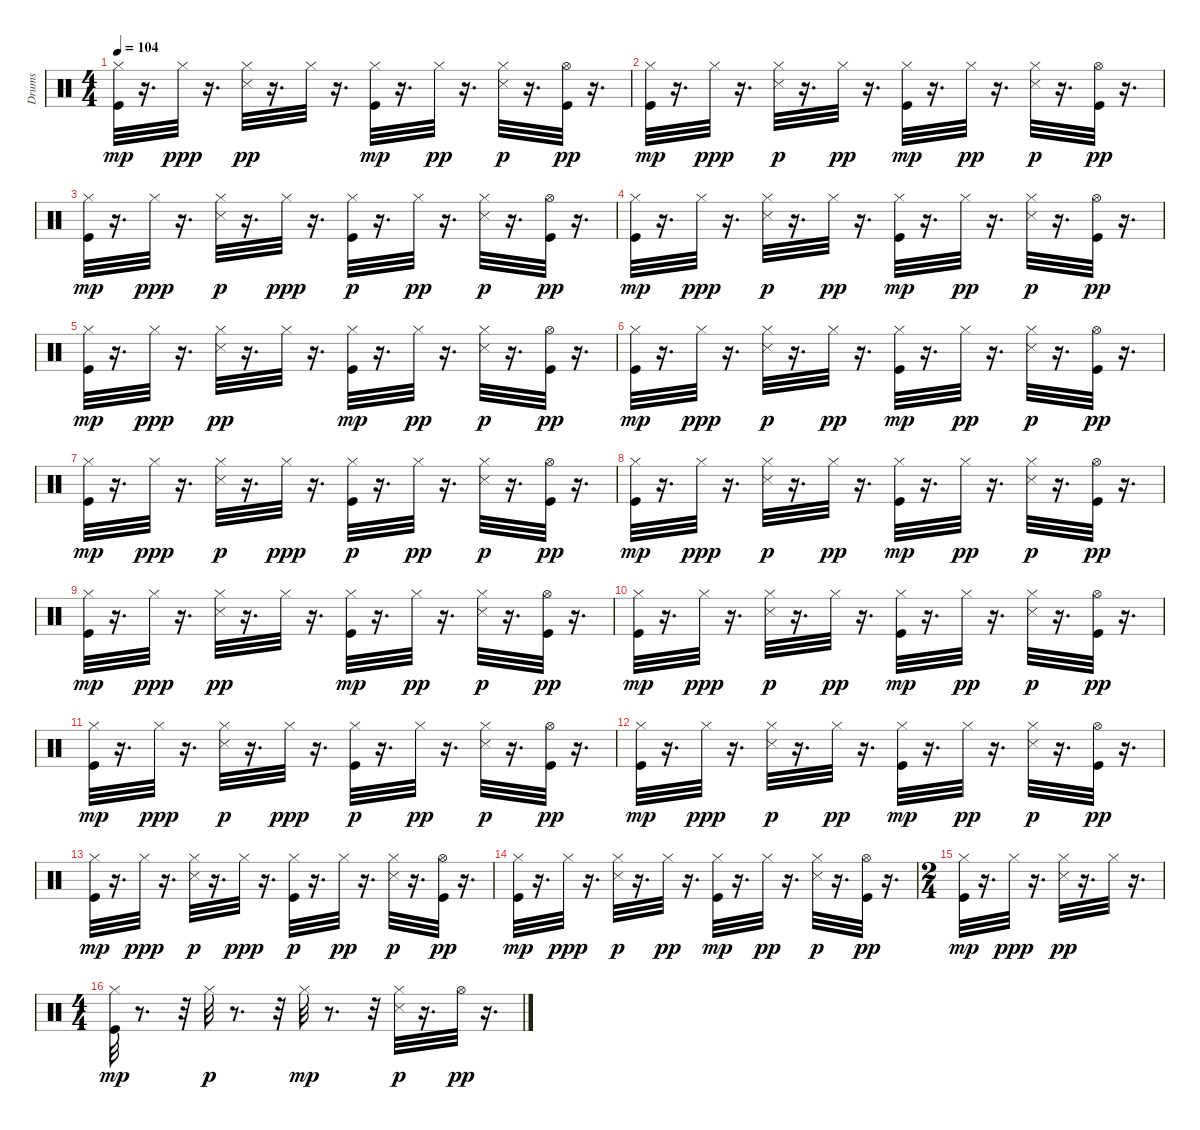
\track ("Drums" "Drums") {instrument percussion}
\staff {score}
\articulation defaults
\ts (4 4)
\tempo 104
\clef neutral
\ks c
("Kick (hit)" "Hi-Hat (closed)").32{dy mp} r.16{d} "Hi-Hat (closed)".32{dy ppp} r.16{d} ("Snare (side stick) 3" "Hi-Hat (closed)").32{dy pp} r.16{d} "Hi-Hat (closed)".32 r.16{d} ("Kick (hit)" "Hi-Hat (closed)").32{dy mp} r.16{d} "Hi-Hat (closed)".32{dy pp} r.16{d} ("Snare (side stick) 3" "Hi-Hat (closed)").32{dy p} r.16{d} ("Kick (hit)" "Hi-Hat (open)").32{dy pp} r.16{d} |
("Kick (hit)" "Hi-Hat (closed)").32{dy mp} r.16{d} "Hi-Hat (closed)".32{dy ppp} r.16{d} ("Snare (side stick) 3" "Hi-Hat (closed)").32{dy p} r.16{d} "Hi-Hat (closed)".32{dy pp} r.16{d} ("Kick (hit)" "Hi-Hat (closed)").32{dy mp} r.16{d} "Hi-Hat (closed)".32{dy pp} r.16{d} ("Snare (side stick) 3" "Hi-Hat (closed)").32{dy p} r.16{d} ("Kick (hit)" "Hi-Hat (open)").32{dy pp} r.16{d} |
("Kick (hit)" "Hi-Hat (closed)").32{dy mp} r.16{d} "Hi-Hat (closed)".32{dy ppp} r.16{d} ("Snare (side stick) 3" "Hi-Hat (closed)").32{dy p} r.16{d} "Hi-Hat (closed)".32{dy ppp} r.16{d} ("Kick (hit)" "Hi-Hat (closed)").32{dy p} r.16{d} "Hi-Hat (closed)".32{dy pp} r.16{d} ("Snare (side stick) 3" "Hi-Hat (closed)").32{dy p} r.16{d} ("Kick (hit)" "Hi-Hat (open)").32{dy pp} r.16{d} |
("Kick (hit)" "Hi-Hat (closed)").32{dy mp} r.16{d} "Hi-Hat (closed)".32{dy ppp} r.16{d} ("Snare (side stick) 3" "Hi-Hat (closed)").32{dy p} r.16{d} "Hi-Hat (closed)".32{dy pp} r.16{d} ("Kick (hit)" "Hi-Hat (closed)").32{dy mp} r.16{d} "Hi-Hat (closed)".32{dy pp} r.16{d} ("Snare (side stick) 3" "Hi-Hat (closed)").32{dy p} r.16{d} ("Kick (hit)" "Hi-Hat (open)").32{dy pp} r.16{d} |
("Kick (hit)" "Hi-Hat (closed)").32{dy mp} r.16{d} "Hi-Hat (closed)".32{dy ppp} r.16{d} ("Snare (side stick) 3" "Hi-Hat (closed)").32{dy pp} r.16{d} "Hi-Hat (closed)".32 r.16{d} ("Kick (hit)" "Hi-Hat (closed)").32{dy mp} r.16{d} "Hi-Hat (closed)".32{dy pp} r.16{d} ("Snare (side stick) 3" "Hi-Hat (closed)").32{dy p} r.16{d} ("Kick (hit)" "Hi-Hat (open)").32{dy pp} r.16{d} |
("Kick (hit)" "Hi-Hat (closed)").32{dy mp} r.16{d} "Hi-Hat (closed)".32{dy ppp} r.16{d} ("Snare (side stick) 3" "Hi-Hat (closed)").32{dy p} r.16{d} "Hi-Hat (closed)".32{dy pp} r.16{d} ("Kick (hit)" "Hi-Hat (closed)").32{dy mp} r.16{d} "Hi-Hat (closed)".32{dy pp} r.16{d} ("Snare (side stick) 3" "Hi-Hat (closed)").32{dy p} r.16{d} ("Kick (hit)" "Hi-Hat (open)").32{dy pp} r.16{d} |
("Kick (hit)" "Hi-Hat (closed)").32{dy mp} r.16{d} "Hi-Hat (closed)".32{dy ppp} r.16{d} ("Snare (side stick) 3" "Hi-Hat (closed)").32{dy p} r.16{d} "Hi-Hat (closed)".32{dy ppp} r.16{d} ("Kick (hit)" "Hi-Hat (closed)").32{dy p} r.16{d} "Hi-Hat (closed)".32{dy pp} r.16{d} ("Snare (side stick) 3" "Hi-Hat (closed)").32{dy p} r.16{d} ("Kick (hit)" "Hi-Hat (open)").32{dy pp} r.16{d} |
("Kick (hit)" "Hi-Hat (closed)").32{dy mp} r.16{d} "Hi-Hat (closed)".32{dy ppp} r.16{d} ("Snare (side stick) 3" "Hi-Hat (closed)").32{dy p} r.16{d} "Hi-Hat (closed)".32{dy pp} r.16{d} ("Kick (hit)" "Hi-Hat (closed)").32{dy mp} r.16{d} "Hi-Hat (closed)".32{dy pp} r.16{d} ("Snare (side stick) 3" "Hi-Hat (closed)").32{dy p} r.16{d} ("Kick (hit)" "Hi-Hat (open)").32{dy pp} r.16{d} |
("Kick (hit)" "Hi-Hat (closed)").32{dy mp} r.16{d} "Hi-Hat (closed)".32{dy ppp} r.16{d} ("Snare (side stick) 3" "Hi-Hat (closed)").32{dy pp} r.16{d} "Hi-Hat (closed)".32 r.16{d} ("Kick (hit)" "Hi-Hat (closed)").32{dy mp} r.16{d} "Hi-Hat (closed)".32{dy pp} r.16{d} ("Snare (side stick) 3" "Hi-Hat (closed)").32{dy p} r.16{d} ("Kick (hit)" "Hi-Hat (open)").32{dy pp} r.16{d} |
("Kick (hit)" "Hi-Hat (closed)").32{dy mp} r.16{d} "Hi-Hat (closed)".32{dy ppp} r.16{d} ("Snare (side stick) 3" "Hi-Hat (closed)").32{dy p} r.16{d} "Hi-Hat (closed)".32{dy pp} r.16{d} ("Kick (hit)" "Hi-Hat (closed)").32{dy mp} r.16{d} "Hi-Hat (closed)".32{dy pp} r.16{d} ("Snare (side stick) 3" "Hi-Hat (closed)").32{dy p} r.16{d} ("Kick (hit)" "Hi-Hat (open)").32{dy pp} r.16{d} |
("Kick (hit)" "Hi-Hat (closed)").32{dy mp} r.16{d} "Hi-Hat (closed)".32{dy ppp} r.16{d} ("Snare (side stick) 3" "Hi-Hat (closed)").32{dy p} r.16{d} "Hi-Hat (closed)".32{dy ppp} r.16{d} ("Kick (hit)" "Hi-Hat (closed)").32{dy p} r.16{d} "Hi-Hat (closed)".32{dy pp} r.16{d} ("Snare (side stick) 3" "Hi-Hat (closed)").32{dy p} r.16{d} ("Kick (hit)" "Hi-Hat (open)").32{dy pp} r.16{d} |
("Kick (hit)" "Hi-Hat (closed)").32{dy mp} r.16{d} "Hi-Hat (closed)".32{dy ppp} r.16{d} ("Snare (side stick) 3" "Hi-Hat (closed)").32{dy p} r.16{d} "Hi-Hat (closed)".32{dy pp} r.16{d} ("Kick (hit)" "Hi-Hat (closed)").32{dy mp} r.16{d} "Hi-Hat (closed)".32{dy pp} r.16{d} ("Snare (side stick) 3" "Hi-Hat (closed)").32{dy p} r.16{d} ("Kick (hit)" "Hi-Hat (open)").32{dy pp} r.16{d} |
("Kick (hit)" "Hi-Hat (closed)").32{dy mp} r.16{d} "Hi-Hat (closed)".32{dy ppp} r.16{d} ("Snare (side stick) 3" "Hi-Hat (closed)").32{dy p} r.16{d} "Hi-Hat (closed)".32{dy ppp} r.16{d} ("Kick (hit)" "Hi-Hat (closed)").32{dy p} r.16{d} "Hi-Hat (closed)".32{dy pp} r.16{d} ("Snare (side stick) 3" "Hi-Hat (closed)").32{dy p} r.16{d} ("Kick (hit)" "Hi-Hat (open)").32{dy pp} r.16{d} |
("Kick (hit)" "Hi-Hat (closed)").32{dy mp} r.16{d} "Hi-Hat (closed)".32{dy ppp} r.16{d} ("Snare (side stick) 3" "Hi-Hat (closed)").32{dy p} r.16{d} "Hi-Hat (closed)".32{dy pp} r.16{d} ("Kick (hit)" "Hi-Hat (closed)").32{dy mp} r.16{d} "Hi-Hat (closed)".32{dy pp} r.16{d} ("Snare (side stick) 3" "Hi-Hat (closed)").32{dy p} r.16{d} ("Kick (hit)" "Hi-Hat (open)").32{dy pp} r.16{d} |
\ts (2 4)
("Kick (hit)" "Hi-Hat (closed)").32{dy mp} r.16{d} "Hi-Hat (closed)".32{dy ppp} r.16{d} ("Snare (side stick) 3" "Hi-Hat (closed)").32{dy pp} r.16{d} "Hi-Hat (closed)".32 r.16{d} |
\ts (4 4)
("Kick (hit)" "Hi-Hat (closed)").32{dy mp} r.8{d} r.32 "Hi-Hat (closed)".32{dy p} r.8{d} r.32 "Hi-Hat (closed)".32{dy mp} r.8{d} r.32 ("Snare (side stick) 3" "Hi-Hat (closed)").32{dy p} r.16{d} "Hi-Hat (open)".32{dy pp} r.16{d}
